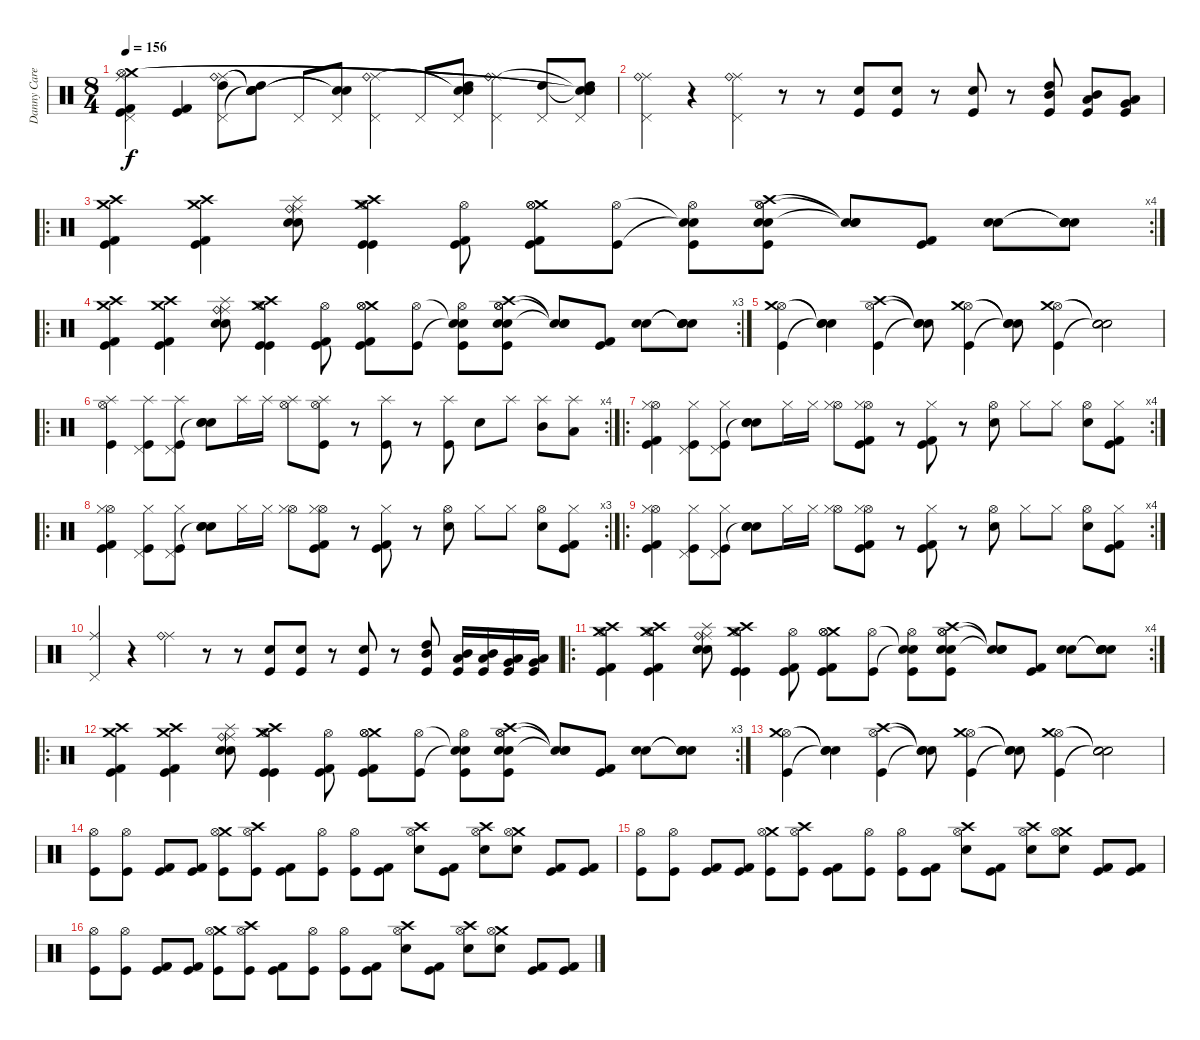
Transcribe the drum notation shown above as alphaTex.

\track ("Danny Carey " "Danny Care") {instrument percussion}
\staff {score}
\articulation defaults
\ts (8 4)
\tempo 156
\clef neutral
\ks c
("Ride (middle)" "Pedal Hi-Hat (hit)" "Kick (hit)" "Kick (hit) 2" "Crash medium (hit)" "Hi-Hat (open)").4{dy f volume 14} ("Kick (hit)" "Kick (hit) 2").4 ("Pedal Hi-Hat (hit)" "Ride (middle)" "Ride (bell)" "High Tom (hit)").8 ("Snare (hit)"{t} "Snare (hit)"{t} "Snare (hit)"{t} "High Tom (hit)").8 "Pedal Hi-Hat (hit)".8 ("Pedal Hi-Hat (hit)" "Snare (hit)"{t} "Snare (hit)"{t}).8 ("Pedal Hi-Hat (hit)" "Ride (middle)" "Ride (bell)").4 "Pedal Hi-Hat (hit)".8 ("Pedal Hi-Hat (hit)" "Snare (hit)"{t} "Snare (hit)"{t} "High Tom (hit)").8 ("Pedal Hi-Hat (hit)" "Ride (middle)" "Ride (bell)").4 ("Pedal Hi-Hat (hit)" "High Tom (hit)").8 ("Pedal Hi-Hat (hit)" "Snare (hit)"{t} "Snare (hit)"{t} "High Tom (hit)" "Snare (hit)"{t} "Snare (hit)"{t}).8 |
("Ride (middle)" "Pedal Hi-Hat (hit)" "Ride (bell)").4 r.4 ("Ride (middle)" "Ride (bell)" "Pedal Hi-Hat (hit)").4 r.8 r.8 ("Electric Snare (hit)" "Kick (hit)").8 ("Electric Snare (hit)" "Kick (hit)").8 r.8 ("Electric Snare (hit)" "Kick (hit)").8 r.8 ("Mid Tom (hit)" "High Tom (hit)" "Kick (hit)").8 ("Low Tom (hit)" "Mid Tom (hit)" "Kick (hit)").8 ("Very Low Tom (hit)" "Low Tom (hit)" "Kick (hit)").8 |
\ro
\rc 4
("Crash medium (hit)" "Crash high (hit)" "Kick (hit) 2" "Kick (hit)").4 ("Crash medium (hit)" "Crash high (hit)" "Kick (hit) 2" "Kick (hit)").4 ("Ride (middle)" "Ride (bell)" "Splash (hit)" "Snare (hit) 2" "Electric Snare (hit)").8 ("Crash medium (hit)" "Crash high (hit)" "Hi-Hat (open)" "Kick (hit)" "Kick (hit)").4 ("Kick (hit) 2" "Hi-Hat (open)" "Kick (hit)").8 ("Crash medium (hit)" "Hi-Hat (open)" "Kick (hit) 2" "Hi-Hat (open)" "Kick (hit)").8 ("Hi-Hat (open)" "Kick (hit)").8 ("Snare (hit)"{t} "Snare (hit)"{t} "Hi-Hat (open)" "Kick (hit)").8 ("Hi-Hat (open)" "Crash high (hit)" "Snare (hit) 2" "Electric Snare (hit)" "Hi-Hat (open)" "Kick (hit)").8 ("Snare (hit)"{t} "Snare (hit)"{t} "Snare (hit)"{t}).8 ("Kick (hit) 2" "Kick (hit)").8 ("Snare (hit) 2" "Electric Snare (hit)").8 ("Snare (hit)"{t} "Snare (hit)"{t} "Snare (hit) 2" "Electric Snare (hit)").8 |
\ro
\rc 3
("Crash medium (hit)" "Crash high (hit)" "Kick (hit) 2" "Kick (hit)").4 ("Crash medium (hit)" "Crash high (hit)" "Kick (hit) 2" "Kick (hit)").4 ("Ride (middle)" "Ride (bell)" "Splash (hit)" "Snare (hit) 2" "Electric Snare (hit)").8 ("Crash medium (hit)" "Crash high (hit)" "Hi-Hat (open)" "Kick (hit)" "Kick (hit)").4 ("Kick (hit) 2" "Hi-Hat (open)" "Kick (hit)").8 ("Crash medium (hit)" "Hi-Hat (open)" "Kick (hit) 2" "Hi-Hat (open)" "Kick (hit)").8 ("Hi-Hat (open)" "Kick (hit)").8 ("Snare (hit)"{t} "Snare (hit)"{t} "Hi-Hat (open)" "Kick (hit)").8 ("Hi-Hat (open)" "Crash high (hit)" "Snare (hit) 2" "Electric Snare (hit)" "Hi-Hat (open)" "Kick (hit)").8 ("Snare (hit)"{t} "Snare (hit)"{t} "Snare (hit)"{t}).8 ("Kick (hit) 2" "Kick (hit)").8 ("Snare (hit) 2" "Electric Snare (hit)").8 ("Snare (hit)"{t} "Snare (hit)"{t} "Snare (hit) 2" "Electric Snare (hit)").8 |
("Hi-Hat (open)" "Crash medium (hit)" "Kick (hit)").4 ("Snare (hit)"{t} "Snare (hit)"{t} "Snare (hit)"{t}).4 ("Hi-Hat (open)" "Crash high (hit)" "Kick (hit)").4 ("Snare (hit)"{t} "Snare (hit)"{t} "Snare (hit)"{t}).8 ("Hi-Hat (open)" "Crash medium (hit)" "Kick (hit)").4 ("Snare (hit)"{t} "Snare (hit)"{t} "Snare (hit)"{t}).8 ("Hi-Hat (open)" "Crash medium (hit)" "Kick (hit)").4 ("Snare (hit)"{t} "Snare (hit)"{t} "Snare (hit)"{t}).2 |
\ro
\rc 4
("Hi-Hat (open)" "Kick (hit)" "Splash (hit)").4 ("Kick (hit)" "Pedal Hi-Hat (hit)" "Splash (hit)").8 ("Kick (hit)" "Pedal Hi-Hat (hit)" "Splash (hit)").8 ("Snare (hit)"{t} "Snare (hit) 2" "Electric Snare (hit)").8 "Splash (hit)".16 "Splash (hit)".16 ("Hi-Hat (open)" "Splash (hit)").8 ("Hi-Hat (open)" "Kick (hit)" "Splash (hit)").8 r.8 ("Kick (hit)" "Splash (hit)").8 r.8 ("Kick (hit)" "Splash (hit)").8 "Snare (hit) 2".8 "Splash (hit)".8 ("Mid Tom (hit)" "Splash (hit)").8 ("Low Tom (hit)" "Splash (hit)").8 |
\ro
\rc 4
("Kick (hit) 2" "Hi-Hat (open)" "Kick (hit)" "Hi-Hat (closed)").4 ("Kick (hit)" "Pedal Hi-Hat (hit)" "Hi-Hat (closed)").8 ("Kick (hit)" "Pedal Hi-Hat (hit)" "Hi-Hat (closed)").8 ("Snare (hit)"{t} "Snare (hit) 2" "Electric Snare (hit)").8 "Hi-Hat (closed)".16 "Hi-Hat (closed)".16 ("Hi-Hat (open)" "Hi-Hat (closed)").8 ("Kick (hit) 2" "Hi-Hat (open)" "Kick (hit)" "Hi-Hat (closed)").8 r.8 ("Kick (hit) 2" "Kick (hit)" "Hi-Hat (closed)").8 r.8 ("Hi-Hat (open)" "Snare (hit) 2").8 "Hi-Hat (closed)".8 "Hi-Hat (closed)".8 ("Hi-Hat (open)" "Snare (hit) 2").8 ("Kick (hit) 2" "Hi-Hat (closed)" "Kick (hit)").8 |
\ro
\rc 3
("Kick (hit) 2" "Hi-Hat (open)" "Kick (hit)" "Hi-Hat (closed)").4 ("Kick (hit)" "Pedal Hi-Hat (hit)" "Hi-Hat (closed)").8 ("Kick (hit)" "Pedal Hi-Hat (hit)" "Hi-Hat (closed)").8 ("Snare (hit)"{t} "Snare (hit) 2" "Electric Snare (hit)").8 "Hi-Hat (closed)".16 "Hi-Hat (closed)".16 ("Hi-Hat (open)" "Hi-Hat (closed)").8 ("Kick (hit) 2" "Hi-Hat (open)" "Kick (hit)" "Hi-Hat (closed)").8 r.8 ("Kick (hit) 2" "Kick (hit)" "Hi-Hat (closed)").8 r.8 ("Hi-Hat (open)" "Snare (hit) 2").8 "Hi-Hat (closed)".8 "Hi-Hat (closed)".8 ("Hi-Hat (open)" "Snare (hit) 2").8 ("Kick (hit) 2" "Hi-Hat (closed)" "Kick (hit)").8 |
\ro
\rc 4
("Kick (hit) 2" "Hi-Hat (open)" "Kick (hit)" "Hi-Hat (closed)").4 ("Kick (hit)" "Pedal Hi-Hat (hit)" "Hi-Hat (closed)").8 ("Kick (hit)" "Pedal Hi-Hat (hit)" "Hi-Hat (closed)").8 ("Snare (hit)"{t} "Snare (hit) 2" "Electric Snare (hit)").8 "Hi-Hat (closed)".16 "Hi-Hat (closed)".16 ("Hi-Hat (open)" "Hi-Hat (closed)").8 ("Kick (hit) 2" "Hi-Hat (open)" "Kick (hit)" "Hi-Hat (closed)").8 r.8 ("Kick (hit) 2" "Kick (hit)" "Hi-Hat (closed)").8 r.8 ("Hi-Hat (open)" "Snare (hit) 2").8 "Hi-Hat (closed)".8 "Hi-Hat (closed)".8 ("Hi-Hat (open)" "Snare (hit) 2").8 ("Kick (hit) 2" "Hi-Hat (closed)" "Kick (hit)").8 |
("Ride (middle)" "Pedal Hi-Hat (hit)").4 r.4 ("Ride (middle)" "Ride (bell)").4 r.8 r.8 ("Electric Snare (hit)" "Kick (hit)").8 ("Electric Snare (hit)" "Kick (hit)").8 r.8 ("Electric Snare (hit)" "Kick (hit)").8 r.8 ("Mid Tom (hit)" "High Tom (hit)" "Kick (hit)").8 ("Low Tom (hit)" "Mid Tom (hit)" "Kick (hit)").16 ("Low Tom (hit)" "Mid Tom (hit)" "Kick (hit)").16 ("Very Low Tom (hit)" "Low Tom (hit)" "Kick (hit)").16 ("Very Low Tom (hit)" "Low Tom (hit)" "Kick (hit)").16 |
\ro
\rc 4
("Crash medium (hit)" "Crash high (hit)" "Hi-Hat (open)" "Kick (hit) 2" "Kick (hit)").4 ("Crash medium (hit)" "Crash high (hit)" "Hi-Hat (open)" "Kick (hit) 2" "Kick (hit)").4 ("Ride (middle)" "Ride (bell)" "Splash (hit)" "Snare (hit) 2" "Electric Snare (hit)").8 ("Crash medium (hit)" "Crash high (hit)" "Hi-Hat (open)" "Kick (hit)" "Kick (hit)").4 ("Kick (hit) 2" "Hi-Hat (open)" "Kick (hit)").8 ("Crash medium (hit)" "Hi-Hat (open)" "Kick (hit) 2" "Hi-Hat (open)" "Kick (hit)").8 ("Hi-Hat (open)" "Kick (hit)").8 ("Snare (hit)"{t} "Snare (hit)"{t} "Hi-Hat (open)" "Kick (hit)").8 ("Hi-Hat (open)" "Crash high (hit)" "Snare (hit) 2" "Electric Snare (hit)" "Hi-Hat (open)" "Kick (hit)").8 ("Snare (hit)"{t} "Snare (hit)"{t} "Snare (hit)"{t}).8 ("Kick (hit) 2" "Kick (hit)").8 ("Snare (hit) 2" "Electric Snare (hit)").8 ("Snare (hit)"{t} "Snare (hit)"{t} "Snare (hit) 2" "Electric Snare (hit)").8 |
\ro
\rc 3
("Crash medium (hit)" "Crash high (hit)" "Kick (hit) 2" "Kick (hit)").4 ("Crash medium (hit)" "Crash high (hit)" "Kick (hit) 2" "Kick (hit)").4 ("Ride (middle)" "Ride (bell)" "Splash (hit)" "Snare (hit) 2" "Electric Snare (hit)").8 ("Crash medium (hit)" "Crash high (hit)" "Hi-Hat (open)" "Kick (hit)" "Kick (hit)").4 ("Kick (hit) 2" "Hi-Hat (open)" "Kick (hit)").8 ("Crash medium (hit)" "Hi-Hat (open)" "Kick (hit) 2" "Hi-Hat (open)" "Kick (hit)").8 ("Hi-Hat (open)" "Kick (hit)").8 ("Snare (hit)"{t} "Snare (hit)"{t} "Hi-Hat (open)" "Kick (hit)").8 ("Hi-Hat (open)" "Crash high (hit)" "Snare (hit) 2" "Electric Snare (hit)" "Hi-Hat (open)" "Kick (hit)").8 ("Snare (hit)"{t} "Snare (hit)"{t} "Snare (hit)"{t}).8 ("Kick (hit) 2" "Kick (hit)").8 ("Snare (hit) 2" "Electric Snare (hit)").8 ("Snare (hit)"{t} "Snare (hit)"{t} "Snare (hit) 2" "Electric Snare (hit)").8 |
("Hi-Hat (open)" "Crash medium (hit)" "Kick (hit)").4 ("Snare (hit)"{t} "Snare (hit)"{t} "Snare (hit)"{t}).4 ("Hi-Hat (open)" "Crash high (hit)" "Kick (hit)").4 ("Snare (hit)"{t} "Snare (hit)"{t} "Snare (hit)"{t}).8 ("Hi-Hat (open)" "Crash medium (hit)" "Kick (hit)").4 ("Snare (hit)"{t} "Snare (hit)"{t} "Snare (hit)"{t}).8 ("Hi-Hat (open)" "Crash medium (hit)" "Kick (hit)").4 ("Snare (hit)"{t} "Snare (hit)"{t} "Snare (hit)"{t}).2 |
("Hi-Hat (open)" "Kick (hit)").8 ("Hi-Hat (open)" "Kick (hit)").8 ("Kick (hit) 2" "Kick (hit)").8 ("Kick (hit) 2" "Kick (hit)").8 ("Crash medium (hit)" "Hi-Hat (open)" "Kick (hit)").8 ("Crash high (hit)" "Hi-Hat (open)" "Kick (hit)").8 ("Kick (hit) 2" "Kick (hit)").8 ("Hi-Hat (open)" "Kick (hit)").8 ("Hi-Hat (open)" "Kick (hit)").8 ("Kick (hit) 2" "Kick (hit)").8 ("Crash high (hit)" "Hi-Hat (open)" "Snare (hit) 2").8 ("Kick (hit) 2" "Kick (hit)").8 ("Crash high (hit)" "Hi-Hat (open)" "Snare (hit) 2").8 ("Crash medium (hit)" "Hi-Hat (open)" "Snare (hit) 2").8 ("Kick (hit) 2" "Kick (hit)").8 ("Kick (hit) 2" "Kick (hit)").8 |
("Hi-Hat (open)" "Kick (hit)").8 ("Hi-Hat (open)" "Kick (hit)").8 ("Kick (hit) 2" "Kick (hit)").8 ("Kick (hit) 2" "Kick (hit)").8 ("Crash medium (hit)" "Hi-Hat (open)" "Kick (hit)").8 ("Crash high (hit)" "Hi-Hat (open)" "Kick (hit)").8 ("Kick (hit) 2" "Kick (hit)").8 ("Hi-Hat (open)" "Kick (hit)").8 ("Hi-Hat (open)" "Kick (hit)").8 ("Kick (hit) 2" "Kick (hit)").8 ("Crash high (hit)" "Hi-Hat (open)" "Snare (hit) 2").8 ("Kick (hit) 2" "Kick (hit)").8 ("Crash high (hit)" "Hi-Hat (open)" "Snare (hit) 2").8 ("Crash medium (hit)" "Hi-Hat (open)" "Snare (hit) 2").8 ("Kick (hit) 2" "Kick (hit)").8 ("Kick (hit) 2" "Kick (hit)").8 |
("Hi-Hat (open)" "Kick (hit)").8 ("Hi-Hat (open)" "Kick (hit)").8 ("Kick (hit) 2" "Kick (hit)").8 ("Kick (hit) 2" "Kick (hit)").8 ("Crash medium (hit)" "Hi-Hat (open)" "Kick (hit)").8 ("Crash high (hit)" "Hi-Hat (open)" "Kick (hit)").8 ("Kick (hit) 2" "Kick (hit)").8 ("Hi-Hat (open)" "Kick (hit)").8 ("Hi-Hat (open)" "Kick (hit)").8 ("Kick (hit) 2" "Kick (hit)").8 ("Crash high (hit)" "Hi-Hat (open)" "Snare (hit) 2").8 ("Kick (hit) 2" "Kick (hit)").8 ("Crash high (hit)" "Hi-Hat (open)" "Snare (hit) 2").8 ("Crash medium (hit)" "Hi-Hat (open)" "Snare (hit) 2").8 ("Kick (hit) 2" "Kick (hit)").8 ("Kick (hit) 2" "Kick (hit)").8
